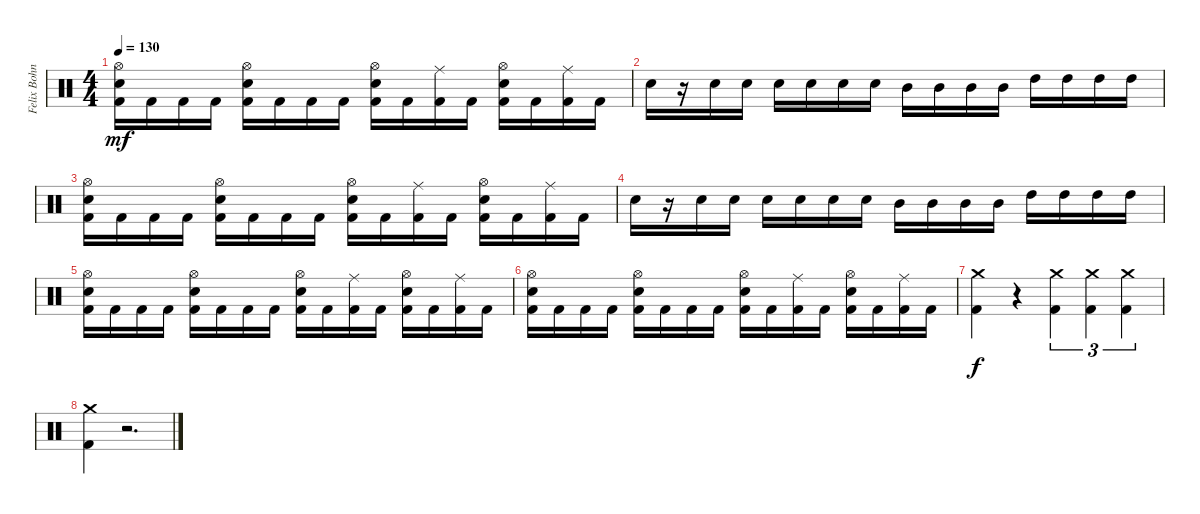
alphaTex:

\track ("Felix Bohnke" "Felix Bohn") {instrument percussion}
\staff {score}
\articulation defaults
\ts (4 4)
\tempo 130
\clef neutral
\ks c
("Hi-Hat (open)" "Electric Snare (hit)" "Kick (hit) 2").16{dy mf} "Kick (hit) 2".16 "Kick (hit) 2".16 "Kick (hit) 2".16 ("Hi-Hat (open)" "Electric Snare (hit)" "Kick (hit) 2").16 "Kick (hit) 2".16 "Kick (hit) 2".16 "Kick (hit) 2".16 ("Hi-Hat (open)" "Electric Snare (hit)" "Kick (hit) 2").16 "Kick (hit) 2".16 ("Ride (middle)" "Kick (hit) 2").16 "Kick (hit) 2".16 ("Hi-Hat (open)" "Electric Snare (hit)" "Kick (hit) 2").16 "Kick (hit) 2".16 ("Ride (middle)" "Kick (hit) 2").16 "Kick (hit) 2".16 |
"Electric Snare (hit)".16 r.16 "Electric Snare (hit)".16 "Electric Snare (hit)".16 "Electric Snare (hit)".16 "Electric Snare (hit)".16 "Electric Snare (hit)".16 "Electric Snare (hit)".16 "Mid Tom (hit)".16 "Mid Tom (hit)".16 "Mid Tom (hit)".16 "Mid Tom (hit)".16 "High Tom (hit)".16 "High Tom (hit)".16 "High Tom (hit)".16 "High Tom (hit)".16 |
("Hi-Hat (open)" "Electric Snare (hit)" "Kick (hit) 2").16 "Kick (hit) 2".16 "Kick (hit) 2".16 "Kick (hit) 2".16 ("Hi-Hat (open)" "Electric Snare (hit)" "Kick (hit) 2").16 "Kick (hit) 2".16 "Kick (hit) 2".16 "Kick (hit) 2".16 ("Hi-Hat (open)" "Electric Snare (hit)" "Kick (hit) 2").16 "Kick (hit) 2".16 ("Ride (middle)" "Kick (hit) 2").16 "Kick (hit) 2".16 ("Hi-Hat (open)" "Electric Snare (hit)" "Kick (hit) 2").16 "Kick (hit) 2".16 ("Ride (middle)" "Kick (hit) 2").16 "Kick (hit) 2".16 |
"Electric Snare (hit)".16 r.16 "Electric Snare (hit)".16 "Electric Snare (hit)".16 "Electric Snare (hit)".16 "Electric Snare (hit)".16 "Electric Snare (hit)".16 "Electric Snare (hit)".16 "Mid Tom (hit)".16 "Mid Tom (hit)".16 "Mid Tom (hit)".16 "Mid Tom (hit)".16 "High Tom (hit)".16 "High Tom (hit)".16 "High Tom (hit)".16 "High Tom (hit)".16 |
("Hi-Hat (open)" "Electric Snare (hit)" "Kick (hit) 2").16 "Kick (hit) 2".16 "Kick (hit) 2".16 "Kick (hit) 2".16 ("Hi-Hat (open)" "Electric Snare (hit)" "Kick (hit) 2").16 "Kick (hit) 2".16 "Kick (hit) 2".16 "Kick (hit) 2".16 ("Hi-Hat (open)" "Electric Snare (hit)" "Kick (hit) 2").16 "Kick (hit) 2".16 ("Ride (middle)" "Kick (hit) 2").16 "Kick (hit) 2".16 ("Hi-Hat (open)" "Electric Snare (hit)" "Kick (hit) 2").16 "Kick (hit) 2".16 ("Ride (middle)" "Kick (hit) 2").16 "Kick (hit) 2".16 |
("Hi-Hat (open)" "Electric Snare (hit)" "Kick (hit) 2").16 "Kick (hit) 2".16 "Kick (hit) 2".16 "Kick (hit) 2".16 ("Hi-Hat (open)" "Electric Snare (hit)" "Kick (hit) 2").16 "Kick (hit) 2".16 "Kick (hit) 2".16 "Kick (hit) 2".16 ("Hi-Hat (open)" "Electric Snare (hit)" "Kick (hit) 2").16 "Kick (hit) 2".16 ("Ride (middle)" "Kick (hit) 2").16 "Kick (hit) 2".16 ("Hi-Hat (open)" "Electric Snare (hit)" "Kick (hit) 2").16 "Kick (hit) 2".16 ("Ride (middle)" "Kick (hit) 2").16 "Kick (hit) 2".16 |
("Crash medium (hit)" "Kick (hit) 2").4{dy f} r.4 ("Crash medium (hit)" "Kick (hit) 2").4{tu (3 2)} ("Crash medium (hit)" "Kick (hit) 2").4{tu (3 2)} ("Crash medium (hit)" "Kick (hit) 2").4{tu (3 2)} |
("Crash medium (hit)" "Kick (hit) 2").4 r.2{d}
